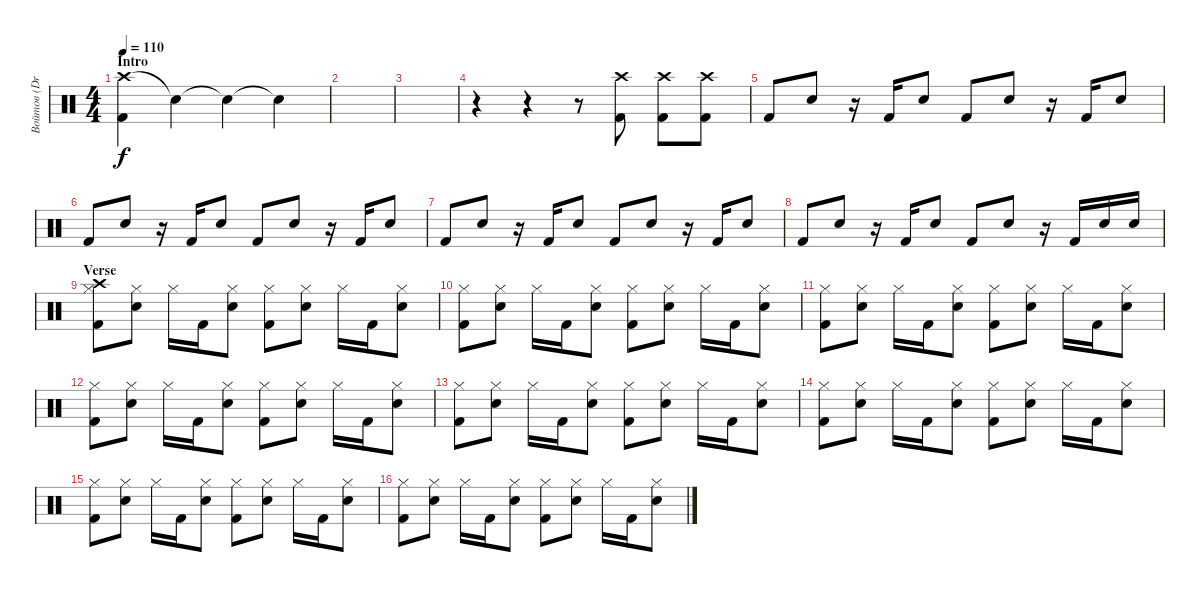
\track ("Войтов (Drums)" "Войтов (Dr") {instrument percussion}
\staff {score}
\articulation defaults
\ts (4 4)
\section ("" "Intro ")
\tempo 110
\clef neutral
\ks c
("Crash high (hit)" "Kick (hit) 2").4{dy f} "Snare (hit)"{t}.4 "Snare (hit)"{t}.4 "Snare (hit)"{t}.4 |
|
|
r.4 r.4 r.8 ("Kick (hit) 2" "Crash high (hit)").8 ("Kick (hit) 2" "Crash high (hit)").8 ("Kick (hit) 2" "Crash high (hit)").8 |
"Kick (hit) 2".8 "Electric Snare (hit)".8 r.16 "Kick (hit) 2".16 "Electric Snare (hit)".8 "Kick (hit) 2".8 "Electric Snare (hit)".8 r.16 "Kick (hit) 2".16 "Electric Snare (hit)".8 |
"Kick (hit) 2".8 "Electric Snare (hit)".8 r.16 "Kick (hit) 2".16 "Electric Snare (hit)".8 "Kick (hit) 2".8 "Electric Snare (hit)".8 r.16 "Kick (hit) 2".16 "Electric Snare (hit)".8 |
"Kick (hit) 2".8 "Electric Snare (hit)".8 r.16 "Kick (hit) 2".16 "Electric Snare (hit)".8 "Kick (hit) 2".8 "Electric Snare (hit)".8 r.16 "Kick (hit) 2".16 "Electric Snare (hit)".8 |
"Kick (hit) 2".8 "Electric Snare (hit)".8 r.16 "Kick (hit) 2".16 "Electric Snare (hit)".8 "Kick (hit) 2".8 "Electric Snare (hit)".8 r.16 "Kick (hit) 2".16 "Electric Snare (hit)".16 "Electric Snare (hit)".16 |
\section ("" "Verse")
("Kick (hit) 2" "Crash high (hit)" "Hi-Hat (closed)").8 ("Electric Snare (hit)" "Hi-Hat (closed)").8 "Hi-Hat (closed)".16 "Kick (hit) 2".16 ("Electric Snare (hit)" "Hi-Hat (closed)").8 ("Kick (hit) 2" "Hi-Hat (closed)").8 ("Electric Snare (hit)" "Hi-Hat (closed)").8 "Hi-Hat (closed)".16 "Kick (hit) 2".16 ("Electric Snare (hit)" "Hi-Hat (closed)").8 |
("Kick (hit) 2" "Hi-Hat (closed)").8 ("Electric Snare (hit)" "Hi-Hat (closed)").8 "Hi-Hat (closed)".16 "Kick (hit) 2".16 ("Electric Snare (hit)" "Hi-Hat (closed)").8 ("Kick (hit) 2" "Hi-Hat (closed)").8 ("Electric Snare (hit)" "Hi-Hat (closed)").8 "Hi-Hat (closed)".16 "Kick (hit) 2".16 ("Electric Snare (hit)" "Hi-Hat (closed)").8 |
("Kick (hit) 2" "Hi-Hat (closed)").8 ("Electric Snare (hit)" "Hi-Hat (closed)").8 "Hi-Hat (closed)".16 "Kick (hit) 2".16 ("Electric Snare (hit)" "Hi-Hat (closed)").8 ("Kick (hit) 2" "Hi-Hat (closed)").8 ("Electric Snare (hit)" "Hi-Hat (closed)").8 "Hi-Hat (closed)".16 "Kick (hit) 2".16 ("Electric Snare (hit)" "Hi-Hat (closed)").8 |
("Kick (hit) 2" "Hi-Hat (closed)").8 ("Electric Snare (hit)" "Hi-Hat (closed)").8 "Hi-Hat (closed)".16 "Kick (hit) 2".16 ("Electric Snare (hit)" "Hi-Hat (closed)").8 ("Kick (hit) 2" "Hi-Hat (closed)").8 ("Electric Snare (hit)" "Hi-Hat (closed)").8 "Hi-Hat (closed)".16 "Kick (hit) 2".16 ("Electric Snare (hit)" "Hi-Hat (closed)").8 |
("Kick (hit) 2" "Hi-Hat (closed)").8 ("Electric Snare (hit)" "Hi-Hat (closed)").8 "Hi-Hat (closed)".16 "Kick (hit) 2".16 ("Electric Snare (hit)" "Hi-Hat (closed)").8 ("Kick (hit) 2" "Hi-Hat (closed)").8 ("Electric Snare (hit)" "Hi-Hat (closed)").8 "Hi-Hat (closed)".16 "Kick (hit) 2".16 ("Electric Snare (hit)" "Hi-Hat (closed)").8 |
("Kick (hit) 2" "Hi-Hat (closed)").8 ("Electric Snare (hit)" "Hi-Hat (closed)").8 "Hi-Hat (closed)".16 "Kick (hit) 2".16 ("Electric Snare (hit)" "Hi-Hat (closed)").8 ("Kick (hit) 2" "Hi-Hat (closed)").8 ("Electric Snare (hit)" "Hi-Hat (closed)").8 "Hi-Hat (closed)".16 "Kick (hit) 2".16 ("Electric Snare (hit)" "Hi-Hat (closed)").8 |
("Kick (hit) 2" "Hi-Hat (closed)").8 ("Electric Snare (hit)" "Hi-Hat (closed)").8 "Hi-Hat (closed)".16 "Kick (hit) 2".16 ("Electric Snare (hit)" "Hi-Hat (closed)").8 ("Kick (hit) 2" "Hi-Hat (closed)").8 ("Electric Snare (hit)" "Hi-Hat (closed)").8 "Hi-Hat (closed)".16 "Kick (hit) 2".16 ("Electric Snare (hit)" "Hi-Hat (closed)").8 |
("Kick (hit) 2" "Hi-Hat (closed)").8 ("Electric Snare (hit)" "Hi-Hat (closed)").8 "Hi-Hat (closed)".16 "Kick (hit) 2".16 ("Electric Snare (hit)" "Hi-Hat (closed)").8 ("Kick (hit) 2" "Hi-Hat (closed)").8 ("Electric Snare (hit)" "Hi-Hat (closed)").8 "Hi-Hat (closed)".16 "Kick (hit) 2".16 ("Electric Snare (hit)" "Hi-Hat (closed)").8
